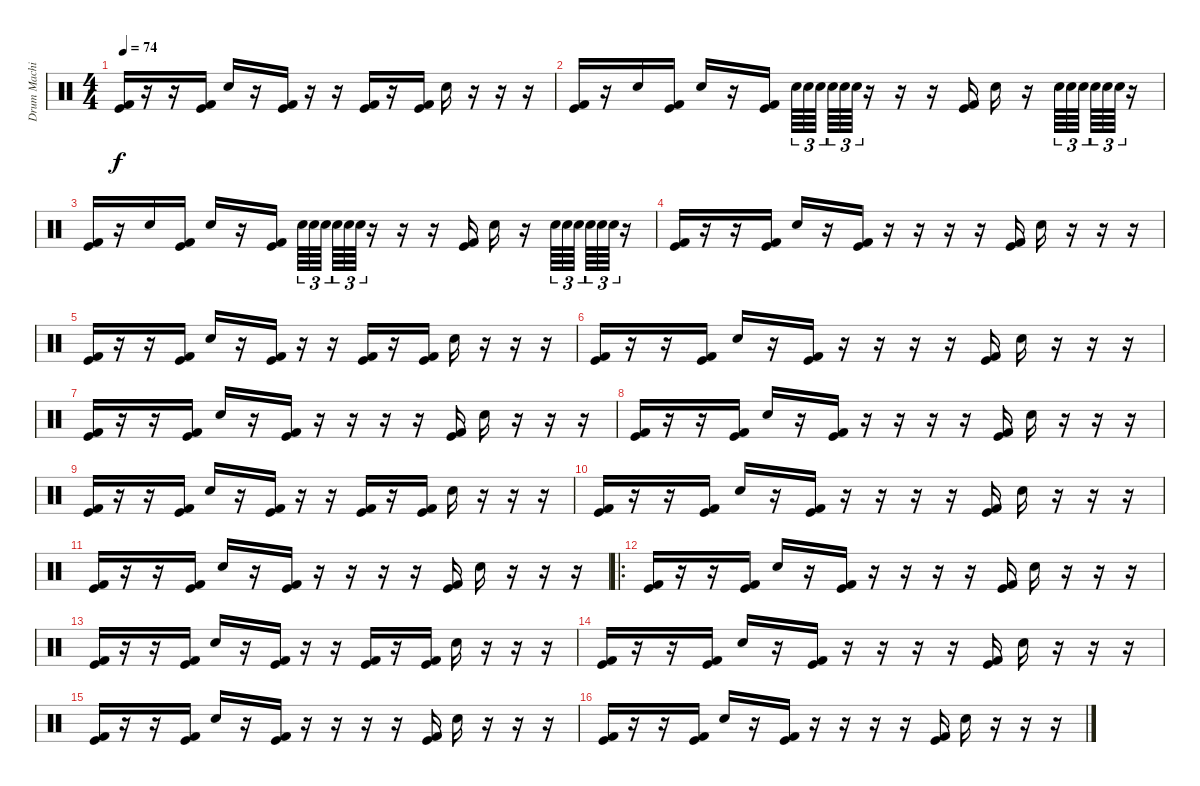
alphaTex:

\track ("Drum Machine" "Drum Machi") {instrument percussion}
\staff {score}
\articulation defaults
\ts (4 4)
\tempo 74
\clef neutral
\ks c
("Kick (hit) 2" "Kick (hit)").16{dy f} r.16 r.16 ("Kick (hit) 2" "Kick (hit)").16 "Snare (hit) 2".16 r.16 ("Kick (hit) 2" "Kick (hit)").16 r.16 r.16 ("Kick (hit) 2" "Kick (hit)").16 r.16 ("Kick (hit) 2" "Kick (hit)").16 "Snare (hit) 2".16 r.16 r.16 r.16 |
("Kick (hit) 2" "Kick (hit)").16 r.16 "Snare (hit) 2".16 ("Kick (hit) 2" "Kick (hit)").16 "Snare (hit) 2".16 r.16 ("Kick (hit) 2" "Kick (hit)").16 "Snare (hit) 2".64{tu (3 2)} "Snare (hit) 2".64{tu (3 2)} "Snare (hit) 2".64{tu (3 2)} "Snare (hit) 2".64{tu (3 2)} "Snare (hit) 2".64{tu (3 2)} "Snare (hit) 2".64{tu (3 2)} r.16 r.16 r.16 ("Kick (hit) 2" "Kick (hit)").16 "Snare (hit) 2".16 r.16 "Snare (hit) 2".64{tu (3 2)} "Snare (hit) 2".64{tu (3 2)} "Snare (hit) 2".64{tu (3 2)} "Snare (hit) 2".64{tu (3 2)} "Snare (hit) 2".64{tu (3 2)} "Snare (hit) 2".64{tu (3 2)} r.16 |
("Kick (hit) 2" "Kick (hit)").16 r.16 "Snare (hit) 2".16 ("Kick (hit) 2" "Kick (hit)").16 "Snare (hit) 2".16 r.16 ("Kick (hit) 2" "Kick (hit)").16 "Snare (hit) 2".64{tu (3 2)} "Snare (hit) 2".64{tu (3 2)} "Snare (hit) 2".64{tu (3 2)} "Snare (hit) 2".64{tu (3 2)} "Snare (hit) 2".64{tu (3 2)} "Snare (hit) 2".64{tu (3 2)} r.16 r.16 r.16 ("Kick (hit) 2" "Kick (hit)").16 "Snare (hit) 2".16 r.16 "Snare (hit) 2".64{tu (3 2)} "Snare (hit) 2".64{tu (3 2)} "Snare (hit) 2".64{tu (3 2)} "Snare (hit) 2".64{tu (3 2)} "Snare (hit) 2".64{tu (3 2)} "Snare (hit) 2".64{tu (3 2)} r.16 |
("Kick (hit) 2" "Kick (hit)").16 r.16 r.16 ("Kick (hit) 2" "Kick (hit)").16 "Snare (hit) 2".16 r.16 ("Kick (hit) 2" "Kick (hit)").16 r.16 r.16 r.16 r.16 ("Kick (hit) 2" "Kick (hit)").16 "Snare (hit) 2".16 r.16 r.16 r.16 |
("Kick (hit) 2" "Kick (hit)").16 r.16 r.16 ("Kick (hit) 2" "Kick (hit)").16 "Snare (hit) 2".16 r.16 ("Kick (hit) 2" "Kick (hit)").16 r.16 r.16 ("Kick (hit) 2" "Kick (hit)").16 r.16 ("Kick (hit) 2" "Kick (hit)").16 "Snare (hit) 2".16 r.16 r.16 r.16 |
("Kick (hit) 2" "Kick (hit)").16 r.16 r.16 ("Kick (hit) 2" "Kick (hit)").16 "Snare (hit) 2".16 r.16 ("Kick (hit) 2" "Kick (hit)").16 r.16 r.16 r.16 r.16 ("Kick (hit) 2" "Kick (hit)").16 "Snare (hit) 2".16 r.16 r.16 r.16 |
("Kick (hit) 2" "Kick (hit)").16 r.16 r.16 ("Kick (hit) 2" "Kick (hit)").16 "Snare (hit) 2".16 r.16 ("Kick (hit) 2" "Kick (hit)").16 r.16 r.16 r.16 r.16 ("Kick (hit) 2" "Kick (hit)").16 "Snare (hit) 2".16 r.16 r.16 r.16 |
("Kick (hit) 2" "Kick (hit)").16 r.16 r.16 ("Kick (hit) 2" "Kick (hit)").16 "Snare (hit) 2".16 r.16 ("Kick (hit) 2" "Kick (hit)").16 r.16 r.16 r.16 r.16 ("Kick (hit) 2" "Kick (hit)").16 "Snare (hit) 2".16 r.16 r.16 r.16 |
("Kick (hit) 2" "Kick (hit)").16 r.16 r.16 ("Kick (hit) 2" "Kick (hit)").16 "Snare (hit) 2".16 r.16 ("Kick (hit) 2" "Kick (hit)").16 r.16 r.16 ("Kick (hit) 2" "Kick (hit)").16 r.16 ("Kick (hit) 2" "Kick (hit)").16 "Snare (hit) 2".16 r.16 r.16 r.16 |
("Kick (hit) 2" "Kick (hit)").16 r.16 r.16 ("Kick (hit) 2" "Kick (hit)").16 "Snare (hit) 2".16 r.16 ("Kick (hit) 2" "Kick (hit)").16 r.16 r.16 r.16 r.16 ("Kick (hit) 2" "Kick (hit)").16 "Snare (hit) 2".16 r.16 r.16 r.16 |
("Kick (hit) 2" "Kick (hit)").16 r.16 r.16 ("Kick (hit) 2" "Kick (hit)").16 "Snare (hit) 2".16 r.16 ("Kick (hit) 2" "Kick (hit)").16 r.16 r.16 r.16 r.16 ("Kick (hit) 2" "Kick (hit)").16 "Snare (hit) 2".16 r.16 r.16 r.16 |
\ro
("Kick (hit) 2" "Kick (hit)").16 r.16 r.16 ("Kick (hit) 2" "Kick (hit)").16 "Snare (hit) 2".16 r.16 ("Kick (hit) 2" "Kick (hit)").16 r.16 r.16 r.16 r.16 ("Kick (hit) 2" "Kick (hit)").16 "Snare (hit) 2".16 r.16 r.16 r.16 |
("Kick (hit) 2" "Kick (hit)").16 r.16 r.16 ("Kick (hit) 2" "Kick (hit)").16 "Snare (hit) 2".16 r.16 ("Kick (hit) 2" "Kick (hit)").16 r.16 r.16 ("Kick (hit) 2" "Kick (hit)").16 r.16 ("Kick (hit) 2" "Kick (hit)").16 "Snare (hit) 2".16 r.16 r.16 r.16 |
("Kick (hit) 2" "Kick (hit)").16 r.16 r.16 ("Kick (hit) 2" "Kick (hit)").16 "Snare (hit) 2".16 r.16 ("Kick (hit) 2" "Kick (hit)").16 r.16 r.16 r.16 r.16 ("Kick (hit) 2" "Kick (hit)").16 "Snare (hit) 2".16 r.16 r.16 r.16 |
("Kick (hit) 2" "Kick (hit)").16 r.16 r.16 ("Kick (hit) 2" "Kick (hit)").16 "Snare (hit) 2".16 r.16 ("Kick (hit) 2" "Kick (hit)").16 r.16 r.16 r.16 r.16 ("Kick (hit) 2" "Kick (hit)").16 "Snare (hit) 2".16 r.16 r.16 r.16 |
("Kick (hit) 2" "Kick (hit)").16 r.16 r.16 ("Kick (hit) 2" "Kick (hit)").16 "Snare (hit) 2".16 r.16 ("Kick (hit) 2" "Kick (hit)").16 r.16 r.16 r.16 r.16 ("Kick (hit) 2" "Kick (hit)").16 "Snare (hit) 2".16 r.16 r.16 r.16
